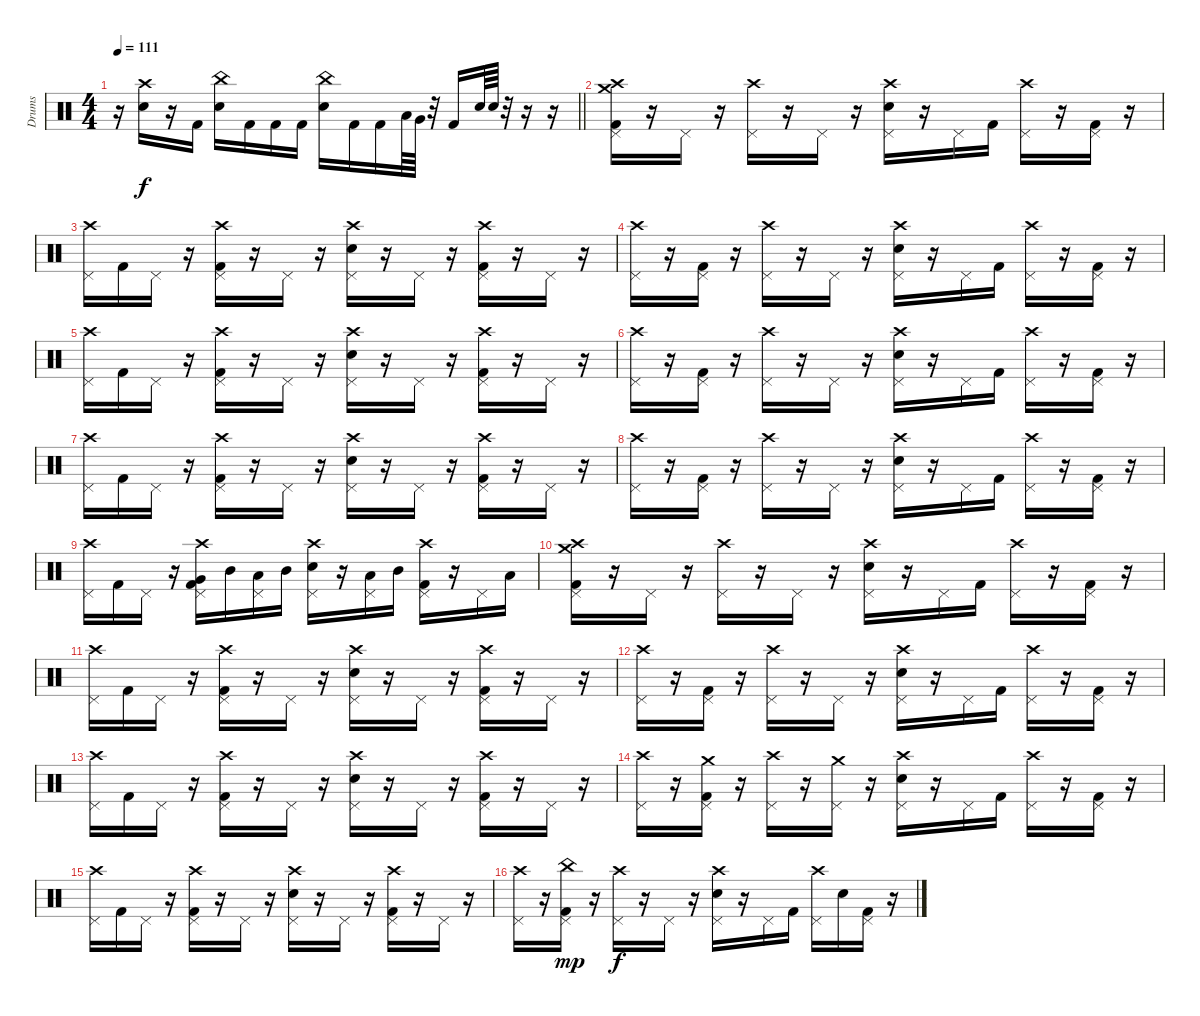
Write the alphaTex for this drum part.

\track ("Drums" "Drums") {instrument percussion}
\staff {score}
\articulation defaults
\ts (4 4)
\tempo 111
\clef neutral
\barLineRight lightlight
\ks c
r.16{dy f} ("Crash high (hit)" "Electric Snare (hit)").16 r.16 "Kick (hit) 2".16 ("China (hit)" "Electric Snare (hit)").16 "Kick (hit) 2".16 "Kick (hit) 2".16 "Kick (hit) 2".16 ("China (hit)" "Electric Snare (hit)").16 "Kick (hit) 2".16 "Kick (hit) 2".16 "Low Tom (hit)".64 "Very Low Tom (hit)".64 r.32 "Kick (hit) 2".16 "Electric Snare (hit)".64 "Electric Snare (hit)".64 r.32 r.16 r.16 |
\section ("" "")
("Crash high (hit)" "Crash medium (hit)" "Pedal Hi-Hat (hit)" "Kick (hit) 2").16 r.16 "Pedal Hi-Hat (hit)".16 r.16 ("Crash high (hit)" "Pedal Hi-Hat (hit)").16 r.16 "Pedal Hi-Hat (hit)".16 r.16 ("Crash high (hit)" "Pedal Hi-Hat (hit)" "Electric Snare (hit)").16 r.16 "Pedal Hi-Hat (hit)".16 "Kick (hit) 2".16 ("Crash high (hit)" "Pedal Hi-Hat (hit)").16 r.16 ("Pedal Hi-Hat (hit)" "Kick (hit) 2").16 r.16 |
("Crash high (hit)" "Pedal Hi-Hat (hit)").16 "Kick (hit) 2".16 "Pedal Hi-Hat (hit)".16 r.16 ("Crash high (hit)" "Pedal Hi-Hat (hit)" "Kick (hit) 2").16 r.16 "Pedal Hi-Hat (hit)".16 r.16 ("Crash high (hit)" "Pedal Hi-Hat (hit)" "Electric Snare (hit)").16 r.16 "Pedal Hi-Hat (hit)".16 r.16 ("Crash high (hit)" "Pedal Hi-Hat (hit)" "Kick (hit) 2").16 r.16 "Pedal Hi-Hat (hit)".16 r.16 |
("Crash high (hit)" "Pedal Hi-Hat (hit)").16 r.16 ("Pedal Hi-Hat (hit)" "Kick (hit) 2").16 r.16 ("Crash high (hit)" "Pedal Hi-Hat (hit)").16 r.16 "Pedal Hi-Hat (hit)".16 r.16 ("Crash high (hit)" "Pedal Hi-Hat (hit)" "Electric Snare (hit)").16 r.16 "Pedal Hi-Hat (hit)".16 "Kick (hit) 2".16 ("Crash high (hit)" "Pedal Hi-Hat (hit)").16 r.16 ("Pedal Hi-Hat (hit)" "Kick (hit) 2").16 r.16 |
("Crash high (hit)" "Pedal Hi-Hat (hit)").16 "Kick (hit) 2".16 "Pedal Hi-Hat (hit)".16 r.16 ("Crash high (hit)" "Pedal Hi-Hat (hit)" "Kick (hit) 2").16 r.16 "Pedal Hi-Hat (hit)".16 r.16 ("Crash high (hit)" "Pedal Hi-Hat (hit)" "Electric Snare (hit)").16 r.16 "Pedal Hi-Hat (hit)".16 r.16 ("Crash high (hit)" "Pedal Hi-Hat (hit)" "Kick (hit) 2").16 r.16 "Pedal Hi-Hat (hit)".16 r.16 |
("Crash high (hit)" "Pedal Hi-Hat (hit)").16 r.16 ("Pedal Hi-Hat (hit)" "Kick (hit) 2").16 r.16 ("Crash high (hit)" "Pedal Hi-Hat (hit)").16 r.16 "Pedal Hi-Hat (hit)".16 r.16 ("Crash high (hit)" "Pedal Hi-Hat (hit)" "Electric Snare (hit)").16 r.16 "Pedal Hi-Hat (hit)".16 "Kick (hit) 2".16 ("Crash high (hit)" "Pedal Hi-Hat (hit)").16 r.16 ("Pedal Hi-Hat (hit)" "Kick (hit) 2").16 r.16 |
("Crash high (hit)" "Pedal Hi-Hat (hit)").16 "Kick (hit) 2".16 "Pedal Hi-Hat (hit)".16 r.16 ("Crash high (hit)" "Pedal Hi-Hat (hit)" "Kick (hit) 2").16 r.16 "Pedal Hi-Hat (hit)".16 r.16 ("Crash high (hit)" "Pedal Hi-Hat (hit)" "Electric Snare (hit)").16 r.16 "Pedal Hi-Hat (hit)".16 r.16 ("Crash high (hit)" "Pedal Hi-Hat (hit)" "Kick (hit) 2").16 r.16 "Pedal Hi-Hat (hit)".16 r.16 |
("Crash high (hit)" "Pedal Hi-Hat (hit)").16 r.16 ("Pedal Hi-Hat (hit)" "Kick (hit) 2").16 r.16 ("Crash high (hit)" "Pedal Hi-Hat (hit)").16 r.16 "Pedal Hi-Hat (hit)".16 r.16 ("Crash high (hit)" "Pedal Hi-Hat (hit)" "Electric Snare (hit)").16 r.16 "Pedal Hi-Hat (hit)".16 "Kick (hit) 2".16 ("Crash high (hit)" "Pedal Hi-Hat (hit)").16 r.16 ("Pedal Hi-Hat (hit)" "Kick (hit) 2").16 r.16 |
("Crash high (hit)" "Pedal Hi-Hat (hit)").16 "Kick (hit) 2".16 "Pedal Hi-Hat (hit)".16 r.16 ("Crash high (hit)" "Pedal Hi-Hat (hit)" "Very Low Tom (hit)" "Kick (hit) 2").16 "Mid Tom (hit)".16 ("Pedal Hi-Hat (hit)" "Low Tom (hit)").16 "Mid Tom (hit)".16 ("Crash high (hit)" "Pedal Hi-Hat (hit)" "Electric Snare (hit)").16 r.16 ("Pedal Hi-Hat (hit)" "Low Tom (hit)").16 "Mid Tom (hit)".16 ("Crash high (hit)" "Pedal Hi-Hat (hit)" "Kick (hit) 2").16 r.16 "Pedal Hi-Hat (hit)".16 "Low Tom (hit)".16 |
("Crash high (hit)" "Crash medium (hit)" "Pedal Hi-Hat (hit)" "Kick (hit) 2").16 r.16 "Pedal Hi-Hat (hit)".16 r.16 ("Crash high (hit)" "Pedal Hi-Hat (hit)").16 r.16 "Pedal Hi-Hat (hit)".16 r.16 ("Crash high (hit)" "Pedal Hi-Hat (hit)" "Electric Snare (hit)").16 r.16 "Pedal Hi-Hat (hit)".16 "Kick (hit) 2".16 ("Crash high (hit)" "Pedal Hi-Hat (hit)").16 r.16 ("Pedal Hi-Hat (hit)" "Kick (hit) 2").16 r.16 |
("Crash high (hit)" "Pedal Hi-Hat (hit)").16 "Kick (hit) 2".16 "Pedal Hi-Hat (hit)".16 r.16 ("Crash high (hit)" "Pedal Hi-Hat (hit)" "Kick (hit) 2").16 r.16 "Pedal Hi-Hat (hit)".16 r.16 ("Crash high (hit)" "Pedal Hi-Hat (hit)" "Electric Snare (hit)").16 r.16 "Pedal Hi-Hat (hit)".16 r.16 ("Crash high (hit)" "Pedal Hi-Hat (hit)" "Kick (hit) 2").16 r.16 "Pedal Hi-Hat (hit)".16 r.16 |
("Crash high (hit)" "Pedal Hi-Hat (hit)").16 r.16 ("Pedal Hi-Hat (hit)" "Kick (hit) 2").16 r.16 ("Crash high (hit)" "Pedal Hi-Hat (hit)").16 r.16 "Pedal Hi-Hat (hit)".16 r.16 ("Crash high (hit)" "Pedal Hi-Hat (hit)" "Electric Snare (hit)").16 r.16 "Pedal Hi-Hat (hit)".16 "Kick (hit) 2".16 ("Crash high (hit)" "Pedal Hi-Hat (hit)").16 r.16 ("Pedal Hi-Hat (hit)" "Kick (hit) 2").16 r.16 |
("Crash high (hit)" "Pedal Hi-Hat (hit)").16 "Kick (hit) 2".16 "Pedal Hi-Hat (hit)".16 r.16 ("Crash high (hit)" "Pedal Hi-Hat (hit)" "Kick (hit) 2").16 r.16 "Pedal Hi-Hat (hit)".16 r.16 ("Crash high (hit)" "Pedal Hi-Hat (hit)" "Electric Snare (hit)").16 r.16 "Pedal Hi-Hat (hit)".16 r.16 ("Crash high (hit)" "Pedal Hi-Hat (hit)" "Kick (hit) 2").16 r.16 "Pedal Hi-Hat (hit)".16 r.16 |
("Crash high (hit)" "Pedal Hi-Hat (hit)").16 r.16 ("Crash medium (hit)" "Pedal Hi-Hat (hit)" "Kick (hit) 2").16 r.16 ("Crash high (hit)" "Pedal Hi-Hat (hit)").16 r.16 ("Crash medium (hit)" "Pedal Hi-Hat (hit)").16 r.16 ("Crash high (hit)" "Pedal Hi-Hat (hit)" "Electric Snare (hit)").16 r.16 "Pedal Hi-Hat (hit)".16 "Kick (hit) 2".16 ("Crash high (hit)" "Pedal Hi-Hat (hit)").16 r.16 ("Pedal Hi-Hat (hit)" "Kick (hit) 2").16 r.16 |
("Crash high (hit)" "Pedal Hi-Hat (hit)").16 "Kick (hit) 2".16 "Pedal Hi-Hat (hit)".16 r.16 ("Crash high (hit)" "Pedal Hi-Hat (hit)" "Kick (hit) 2").16 r.16 "Pedal Hi-Hat (hit)".16 r.16 ("Crash high (hit)" "Pedal Hi-Hat (hit)" "Electric Snare (hit)").16 r.16 "Pedal Hi-Hat (hit)".16 r.16 ("Crash high (hit)" "Pedal Hi-Hat (hit)" "Kick (hit) 2").16 r.16 "Pedal Hi-Hat (hit)".16 r.16 |
("Crash high (hit)" "Pedal Hi-Hat (hit)").16 r.16 ("China (hit)" "Pedal Hi-Hat (hit)" "Kick (hit) 2").16{dy mp} r.16 ("Crash high (hit)" "Pedal Hi-Hat (hit)").16{dy f} r.16 "Pedal Hi-Hat (hit)".16 r.16 ("Crash high (hit)" "Pedal Hi-Hat (hit)" "Electric Snare (hit)").16 r.16 "Pedal Hi-Hat (hit)".16 "Kick (hit) 2".16 ("Crash high (hit)" "Pedal Hi-Hat (hit)").16 "Electric Snare (hit)".16 ("Pedal Hi-Hat (hit)" "Kick (hit) 2").16 r.16
